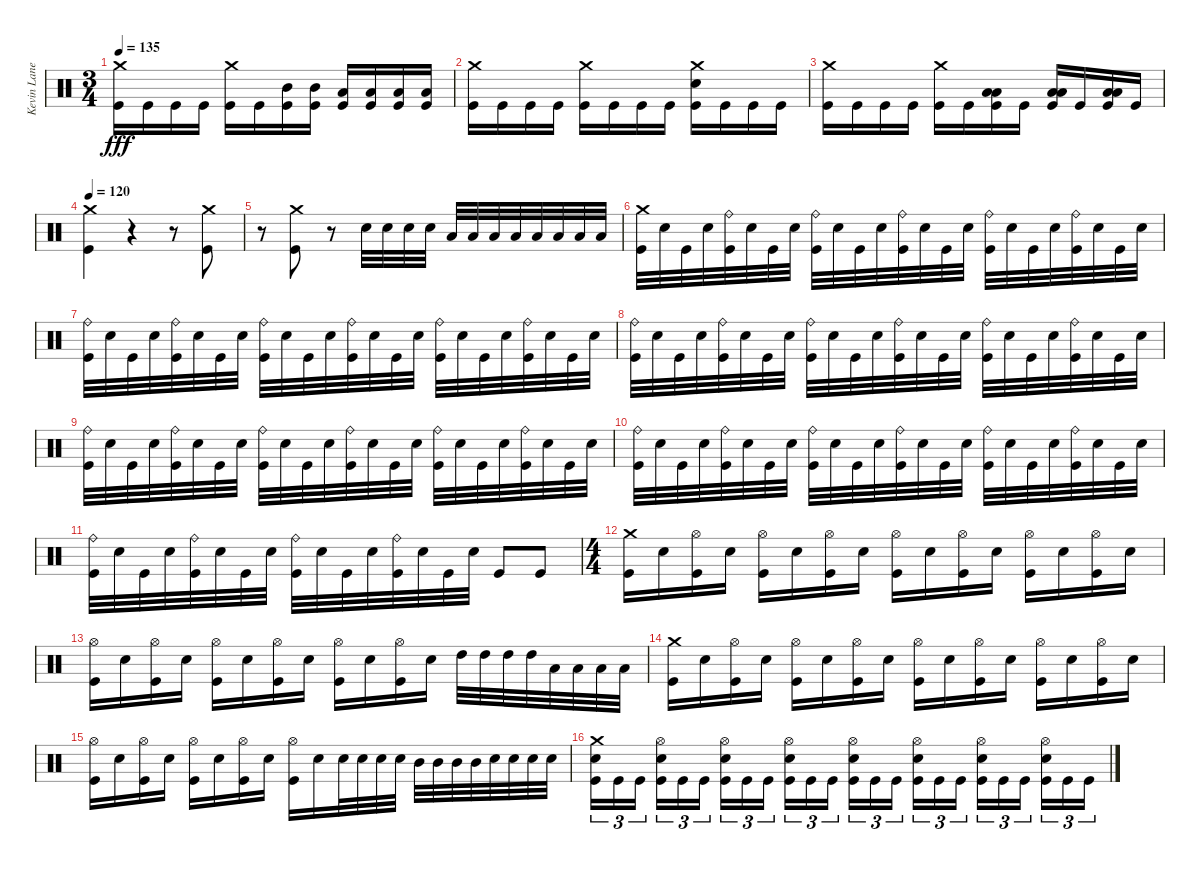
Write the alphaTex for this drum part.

\track ("Kevin Lane" "Kevin Lane") {instrument percussion}
\staff {score}
\articulation defaults
\ts (3 4)
\tempo 135
\clef neutral
\ks c
("Crash medium (hit)" "Kick (hit)").16{dy fff} "Kick (hit)".16 "Kick (hit)".16 "Kick (hit)".16 ("Crash medium (hit)" "Kick (hit)").16 "Kick (hit)".16 ("Mid Tom (hit)" "Kick (hit)").16 ("Mid Tom (hit)" "Kick (hit)").16 ("Low Tom (hit)" "Kick (hit)").16 ("Low Tom (hit)" "Kick (hit)").16 ("Low Floor Tom (hit)" "Kick (hit)").16 ("Low Floor Tom (hit)" "Kick (hit)").16 |
("Crash medium (hit)" "Kick (hit)").16 "Kick (hit)".16 "Kick (hit)".16 "Kick (hit)".16 ("Crash medium (hit)" "Kick (hit)").16 "Kick (hit)".16 "Kick (hit)".16 "Kick (hit)".16 ("Crash medium (hit)" "Snare (hit) 2" "Kick (hit)").16 "Kick (hit)".16 "Kick (hit)".16 "Kick (hit)".16 |
("Crash medium (hit)" "Kick (hit)").16 "Kick (hit)".16 "Kick (hit)".16 "Kick (hit)".16 ("Crash medium (hit)" "Kick (hit)").16 "Kick (hit)".16 ("Low Tom (hit)" "Low Floor Tom (hit)" "Kick (hit)").16 "Kick (hit)".16 ("Low Tom (hit)" "Low Floor Tom (hit)" "Kick (hit)").16 "Kick (hit)".16 ("Low Tom (hit)" "Low Floor Tom (hit)" "Kick (hit)").16 "Kick (hit)".16 |
\tempo 120
("Crash medium (hit)" "Kick (hit)").4 r.4 r.8 ("Crash medium (hit)" "Kick (hit)").8 |
r.8{volume 0} ("Crash medium (hit)" "Kick (hit)").8{volume 13} r.8{volume 0} "Snare (hit) 2".32{volume 13} "Snare (hit) 2".32 "Snare (hit) 2".32 "Snare (hit) 2".32 "Low Tom (hit)".32 "Low Tom (hit)".32 "Low Tom (hit)".32 "Low Tom (hit)".32 "Low Floor Tom (hit)".32 "Low Floor Tom (hit)".32 "Low Floor Tom (hit)".32 "Low Floor Tom (hit)".32 |
("Crash medium (hit)" "Kick (hit)").32 "Snare (hit) 2".32 "Kick (hit)".32 "Snare (hit) 2".32 ("Ride (bell)" "Kick (hit)").32 "Snare (hit) 2".32 "Kick (hit)".32 "Snare (hit) 2".32 ("Ride (bell)" "Kick (hit)").32 "Snare (hit) 2".32 "Kick (hit)".32 "Snare (hit) 2".32 ("Ride (bell)" "Kick (hit)").32 "Snare (hit) 2".32 "Kick (hit)".32 "Snare (hit) 2".32 ("Ride (bell)" "Kick (hit)").32 "Snare (hit) 2".32 "Kick (hit)".32 "Snare (hit) 2".32 ("Ride (bell)" "Kick (hit)").32 "Snare (hit) 2".32 "Kick (hit)".32 "Snare (hit) 2".32 |
("Ride (bell)" "Kick (hit)").32 "Snare (hit) 2".32 "Kick (hit)".32 "Snare (hit) 2".32 ("Ride (bell)" "Kick (hit)").32 "Snare (hit) 2".32 "Kick (hit)".32 "Snare (hit) 2".32 ("Ride (bell)" "Kick (hit)").32 "Snare (hit) 2".32 "Kick (hit)".32 "Snare (hit) 2".32 ("Ride (bell)" "Kick (hit)").32 "Snare (hit) 2".32 "Kick (hit)".32 "Snare (hit) 2".32 ("Ride (bell)" "Kick (hit)").32 "Snare (hit) 2".32 "Kick (hit)".32 "Snare (hit) 2".32 ("Ride (bell)" "Kick (hit)").32 "Snare (hit) 2".32 "Kick (hit)".32 "Snare (hit) 2".32 |
("Ride (bell)" "Kick (hit)").32 "Snare (hit) 2".32 "Kick (hit)".32 "Snare (hit) 2".32 ("Ride (bell)" "Kick (hit)").32 "Snare (hit) 2".32 "Kick (hit)".32 "Snare (hit) 2".32 ("Ride (bell)" "Kick (hit)").32 "Snare (hit) 2".32 "Kick (hit)".32 "Snare (hit) 2".32 ("Ride (bell)" "Kick (hit)").32 "Snare (hit) 2".32 "Kick (hit)".32 "Snare (hit) 2".32 ("Ride (bell)" "Kick (hit)").32 "Snare (hit) 2".32 "Kick (hit)".32 "Snare (hit) 2".32 ("Ride (bell)" "Kick (hit)").32 "Snare (hit) 2".32 "Kick (hit)".32 "Snare (hit) 2".32 |
("Ride (bell)" "Kick (hit)").32 "Snare (hit) 2".32 "Kick (hit)".32 "Snare (hit) 2".32 ("Ride (bell)" "Kick (hit)").32 "Snare (hit) 2".32 "Kick (hit)".32 "Snare (hit) 2".32 ("Ride (bell)" "Kick (hit)").32 "Snare (hit) 2".32 "Kick (hit)".32 "Snare (hit) 2".32 ("Ride (bell)" "Kick (hit)").32 "Snare (hit) 2".32 "Kick (hit)".32 "Snare (hit) 2".32 ("Ride (bell)" "Kick (hit)").32 "Snare (hit) 2".32 "Kick (hit)".32 "Snare (hit) 2".32 ("Ride (bell)" "Kick (hit)").32 "Snare (hit) 2".32 "Kick (hit)".32 "Snare (hit) 2".32 |
("Ride (bell)" "Kick (hit)").32 "Snare (hit) 2".32 "Kick (hit)".32 "Snare (hit) 2".32 ("Ride (bell)" "Kick (hit)").32 "Snare (hit) 2".32 "Kick (hit)".32 "Snare (hit) 2".32 ("Ride (bell)" "Kick (hit)").32 "Snare (hit) 2".32 "Kick (hit)".32 "Snare (hit) 2".32 ("Ride (bell)" "Kick (hit)").32 "Snare (hit) 2".32 "Kick (hit)".32 "Snare (hit) 2".32 ("Ride (bell)" "Kick (hit)").32 "Snare (hit) 2".32 "Kick (hit)".32 "Snare (hit) 2".32 ("Ride (bell)" "Kick (hit)").32 "Snare (hit) 2".32 "Kick (hit)".32 "Snare (hit) 2".32 |
("Ride (bell)" "Kick (hit)").32 "Snare (hit) 2".32 "Kick (hit)".32 "Snare (hit) 2".32 ("Ride (bell)" "Kick (hit)").32 "Snare (hit) 2".32 "Kick (hit)".32 "Snare (hit) 2".32 ("Ride (bell)" "Kick (hit)").32 "Snare (hit) 2".32 "Kick (hit)".32 "Snare (hit) 2".32 ("Ride (bell)" "Kick (hit)").32 "Snare (hit) 2".32 "Kick (hit)".32 "Snare (hit) 2".32 "Kick (hit)".8 "Kick (hit)".8 |
\ts (4 4)
("Crash medium (hit)" "Kick (hit)").16 "Snare (hit) 2".16 ("Hi-Hat (open)" "Kick (hit)").16 "Snare (hit) 2".16 ("Hi-Hat (open)" "Kick (hit)").16 "Snare (hit) 2".16 ("Hi-Hat (open)" "Kick (hit)").16 "Snare (hit) 2".16 ("Hi-Hat (open)" "Kick (hit)").16 "Snare (hit) 2".16 ("Hi-Hat (open)" "Kick (hit)").16 "Snare (hit) 2".16 ("Hi-Hat (open)" "Kick (hit)").16 "Snare (hit) 2".16 ("Hi-Hat (open)" "Kick (hit)").16 "Snare (hit) 2".16 |
("Hi-Hat (open)" "Kick (hit)").16 "Snare (hit) 2".16 ("Hi-Hat (open)" "Kick (hit)").16 "Snare (hit) 2".16 ("Hi-Hat (open)" "Kick (hit)").16 "Snare (hit) 2".16 ("Hi-Hat (open)" "Kick (hit)").16 "Snare (hit) 2".16 ("Hi-Hat (open)" "Kick (hit)").16 "Snare (hit) 2".16 ("Hi-Hat (open)" "Kick (hit)").16 "Snare (hit) 2".16 "High Tom (hit)".32 "High Tom (hit)".32 "High Tom (hit)".32 "High Tom (hit)".32 "Low Tom (hit)".32 "Low Tom (hit)".32 "Low Tom (hit)".32 "Low Tom (hit)".32 |
("Crash medium (hit)" "Kick (hit)").16 "Snare (hit) 2".16 ("Hi-Hat (open)" "Kick (hit)").16 "Snare (hit) 2".16 ("Hi-Hat (open)" "Kick (hit)").16 "Snare (hit) 2".16 ("Hi-Hat (open)" "Kick (hit)").16 "Snare (hit) 2".16 ("Hi-Hat (open)" "Kick (hit)").16 "Snare (hit) 2".16 ("Hi-Hat (open)" "Kick (hit)").16 "Snare (hit) 2".16 ("Hi-Hat (open)" "Kick (hit)").16 "Snare (hit) 2".16 ("Hi-Hat (open)" "Kick (hit)").16 "Snare (hit) 2".16 |
("Hi-Hat (open)" "Kick (hit)").16 "Snare (hit) 2".16 ("Hi-Hat (open)" "Kick (hit)").16 "Snare (hit) 2".16 ("Hi-Hat (open)" "Kick (hit)").16 "Snare (hit) 2".16 ("Hi-Hat (open)" "Kick (hit)").16 "Snare (hit) 2".16 ("Hi-Hat (open)" "Kick (hit)").16 "Snare (hit) 2".16 "Snare (hit) 2".32 "Snare (hit) 2".32 "Snare (hit) 2".32 "Snare (hit) 2".32 "Mid Tom (hit)".32 "Mid Tom (hit)".32 "Mid Tom (hit)".32 "Mid Tom (hit)".32 "Snare (hit) 2".32 "Snare (hit) 2".32 "Snare (hit) 2".32 "Snare (hit) 2".32 |
("Crash medium (hit)" "Snare (hit) 2" "Kick (hit)").16{tu (3 2)} "Kick (hit)".16{tu (3 2)} "Kick (hit)".16{tu (3 2) beam splitsecondary} ("Hi-Hat (open)" "Snare (hit) 2" "Kick (hit)").16{tu (3 2)} "Kick (hit)".16{tu (3 2)} "Kick (hit)".16{tu (3 2)} ("Hi-Hat (open)" "Snare (hit) 2" "Kick (hit)").16{tu (3 2)} "Kick (hit)".16{tu (3 2)} "Kick (hit)".16{tu (3 2) beam splitsecondary} ("Hi-Hat (open)" "Snare (hit) 2" "Kick (hit)").16{tu (3 2)} "Kick (hit)".16{tu (3 2)} "Kick (hit)".16{tu (3 2)} ("Hi-Hat (open)" "Snare (hit) 2" "Kick (hit)").16{tu (3 2)} "Kick (hit)".16{tu (3 2)} "Kick (hit)".16{tu (3 2) beam splitsecondary} ("Hi-Hat (open)" "Snare (hit) 2" "Kick (hit)").16{tu (3 2)} "Kick (hit)".16{tu (3 2)} "Kick (hit)".16{tu (3 2)} ("Hi-Hat (open)" "Snare (hit) 2" "Kick (hit)").16{tu (3 2)} "Kick (hit)".16{tu (3 2)} "Kick (hit)".16{tu (3 2) beam splitsecondary} ("Hi-Hat (open)" "Snare (hit) 2" "Kick (hit)").16{tu (3 2)} "Kick (hit)".16{tu (3 2)} "Kick (hit)".16{tu (3 2)}
